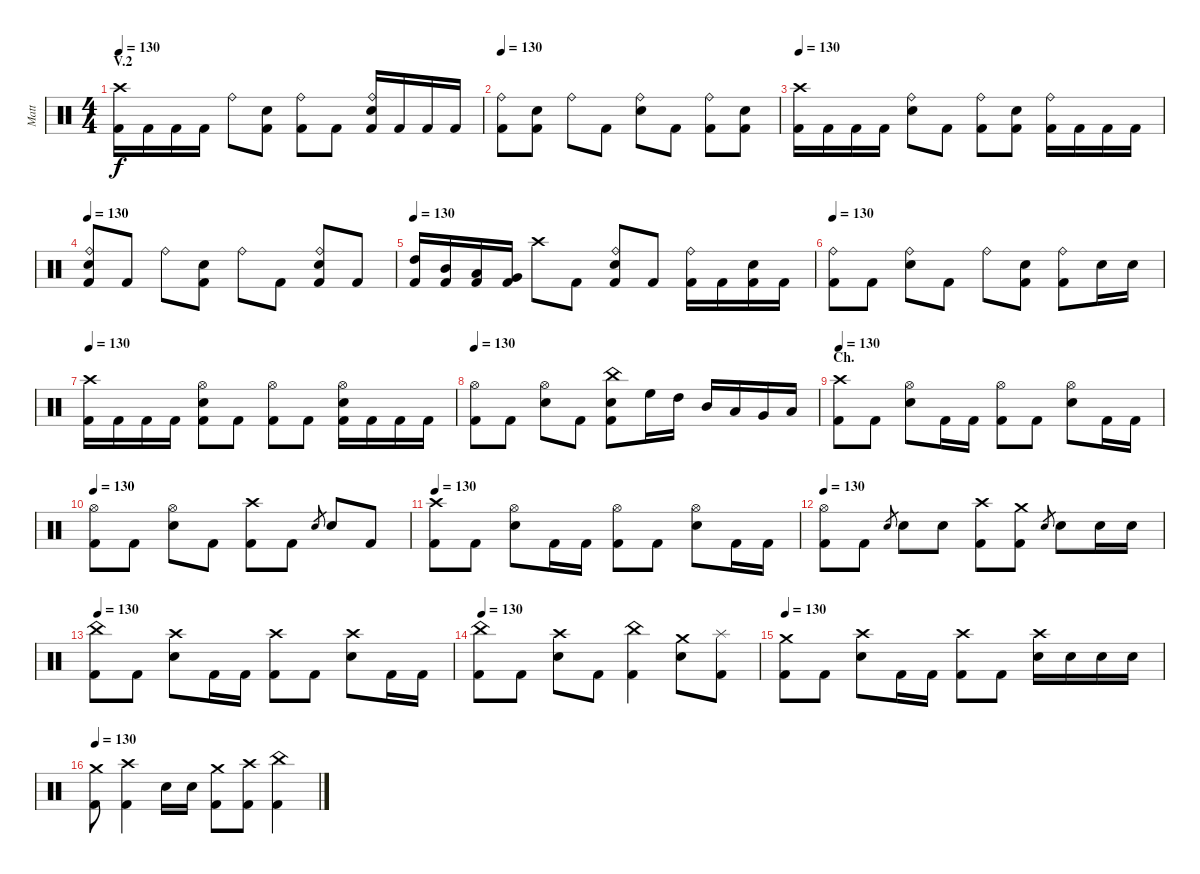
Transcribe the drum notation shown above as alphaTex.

\track ("Matt" "Matt") {instrument percussion}
\staff {score}
\articulation defaults
\ts (4 4)
\section ("" "V.2")
\tempo 130
\clef neutral
\ks c
("Crash high (hit)" "Kick (hit) 2").16{dy f} "Kick (hit) 2".16 "Kick (hit) 2".16 "Kick (hit) 2".16 "Ride (bell)".8 ("Electric Snare (hit)" "Kick (hit) 2").8 ("Ride (bell)" "Kick (hit) 2").8 "Kick (hit) 2".8 ("Ride (bell)" "Electric Snare (hit)" "Kick (hit) 2").16 "Kick (hit) 2".16 "Kick (hit) 2".16 "Kick (hit) 2".16 |
\tempo 130
("Ride (bell)" "Kick (hit) 2").8 ("Electric Snare (hit)" "Kick (hit) 2").8 "Ride (bell)".8 "Kick (hit) 2".8 ("Ride (bell)" "Electric Snare (hit)").8 "Kick (hit) 2".8 ("Ride (bell)" "Kick (hit) 2").8 ("Electric Snare (hit)" "Kick (hit) 2").8 |
\tempo 130
("Crash high (hit)" "Kick (hit) 2").16 "Kick (hit) 2".16 "Kick (hit) 2".16 "Kick (hit) 2".16 ("Ride (bell)" "Electric Snare (hit)").8 "Kick (hit) 2".8 ("Ride (bell)" "Kick (hit) 2").8 ("Electric Snare (hit)" "Kick (hit) 2").8 ("Ride (bell)" "Kick (hit) 2").16 "Kick (hit) 2".16 "Kick (hit) 2".16 "Kick (hit) 2".16 |
\tempo 130
("Ride (bell)" "Electric Snare (hit)" "Kick (hit) 2").8 "Kick (hit) 2".8 "Ride (bell)".8 ("Electric Snare (hit)" "Kick (hit) 2").8 "Ride (bell)".8 "Kick (hit) 2".8 ("Ride (bell)" "Electric Snare (hit)" "Kick (hit) 2").8 "Kick (hit) 2".8 |
\tempo 130
("High Tom (hit)" "Kick (hit) 2").16 ("Mid Tom (hit)" "Kick (hit) 2").16 ("Low Tom (hit)" "Kick (hit) 2").16 ("Very Low Tom (hit)" "Kick (hit) 2").16 "Crash high (hit)".8 "Kick (hit) 2".8 ("Ride (bell)" "Electric Snare (hit)" "Kick (hit) 2").8 "Kick (hit) 2".8 ("Ride (bell)" "Kick (hit) 2").16 "Kick (hit) 2".16 ("Electric Snare (hit)" "Kick (hit) 2").16 "Kick (hit) 2".16 |
\tempo 130
("Ride (bell)" "Kick (hit) 2").8 "Kick (hit) 2".8 ("Ride (bell)" "Electric Snare (hit)").8 "Kick (hit) 2".8 "Ride (bell)".8 ("Electric Snare (hit)" "Kick (hit) 2").8 ("Ride (bell)" "Kick (hit) 2").8 "Electric Snare (hit)".16 "Electric Snare (hit)".16 |
\tempo 130
("Crash high (hit)" "Kick (hit) 2").16 "Kick (hit) 2".16 "Kick (hit) 2".16 "Kick (hit) 2".16 ("Hi-Hat (open)" "Electric Snare (hit)" "Kick (hit) 2").8 "Kick (hit) 2".8 ("Hi-Hat (open)" "Kick (hit) 2").8 "Kick (hit) 2".8 ("Hi-Hat (open)" "Electric Snare (hit)" "Kick (hit) 2").16 "Kick (hit) 2".16 "Kick (hit) 2".16 "Kick (hit) 2".16 |
\tempo 130
("Hi-Hat (open)" "Kick (hit) 2").8 "Kick (hit) 2".8 ("Hi-Hat (open)" "Electric Snare (hit)").8 "Kick (hit) 2".8 ("China (hit)" "Electric Snare (hit)" "Kick (hit) 2").8 "High Floor Tom (hit)".16 "High Tom (hit)".16 "Mid Tom (hit)".16 "Low Tom (hit)".16 "Very Low Tom (hit)".16 "Low Floor Tom (hit)".16 |
\section ("" "Ch.")
\tempo 130
("Crash high (hit)" "Kick (hit) 2").8 "Kick (hit) 2".8 ("Hi-Hat (open)" "Electric Snare (hit)").8 "Kick (hit) 2".16 "Kick (hit) 2".16 ("Hi-Hat (open)" "Kick (hit) 2").8 "Kick (hit) 2".8 ("Hi-Hat (open)" "Electric Snare (hit)").8 "Kick (hit) 2".16 "Kick (hit) 2".16 |
\tempo 130
("Hi-Hat (open)" "Kick (hit) 2").8 "Kick (hit) 2".8 ("Hi-Hat (open)" "Electric Snare (hit)").8 "Kick (hit) 2".8 ("Crash high (hit)" "Kick (hit) 2").8 "Kick (hit) 2".8 "Electric Snare (hit)".8{gr} "Electric Snare (hit)".8 "Kick (hit) 2".8 |
\tempo 130
("Crash high (hit)" "Kick (hit) 2").8 "Kick (hit) 2".8 ("Hi-Hat (open)" "Electric Snare (hit)").8 "Kick (hit) 2".16 "Kick (hit) 2".16 ("Hi-Hat (open)" "Kick (hit) 2").8 "Kick (hit) 2".8 ("Hi-Hat (open)" "Electric Snare (hit)").8 "Kick (hit) 2".16 "Kick (hit) 2".16 |
\tempo 130
("Hi-Hat (open)" "Kick (hit) 2").8 "Kick (hit) 2".8 "Electric Snare (hit)".8{gr} "Electric Snare (hit)".8 "Electric Snare (hit)".8 ("Crash high (hit)" "Kick (hit) 2").8 ("Crash medium (hit)" "Kick (hit) 2").8 "Electric Snare (hit)".8{gr} "Electric Snare (hit)".8 "Electric Snare (hit)".16 "Electric Snare (hit)".16 |
\tempo 130
("China (hit)" "Kick (hit) 2").8 "Kick (hit) 2".8 ("Crash high (hit)" "Electric Snare (hit)").8 "Kick (hit) 2".16 "Kick (hit) 2".16 ("Crash high (hit)" "Kick (hit) 2").8 "Kick (hit) 2".8 ("Crash high (hit)" "Electric Snare (hit)").8 "Kick (hit) 2".16 "Kick (hit) 2".16 |
\tempo 130
("China (hit)" "Kick (hit) 2").8 "Kick (hit) 2".8 ("Crash high (hit)" "Electric Snare (hit)").8 "Kick (hit) 2".8 ("China (hit)" "Kick (hit) 2").4 ("Crash medium (hit)" "Electric Snare (hit)").8 ("Splash (hit)" "Kick (hit) 2").8 |
\tempo 130
("Crash medium (hit)" "Kick (hit) 2").8 "Kick (hit) 2".8 ("Crash high (hit)" "Electric Snare (hit)").8 "Kick (hit) 2".16 "Kick (hit) 2".16 ("Crash high (hit)" "Kick (hit) 2").8 "Kick (hit) 2".8 ("Crash high (hit)" "Electric Snare (hit)").16 "Electric Snare (hit)".16 "Electric Snare (hit)".16 "Electric Snare (hit)".16 |
\tempo 130
("Crash medium (hit)" "Kick (hit) 2").8 ("Crash high (hit)" "Kick (hit) 2").4 "Electric Snare (hit)".16 "Electric Snare (hit)".16 ("Crash medium (hit)" "Kick (hit) 2").8 ("Crash high (hit)" "Kick (hit) 2").8 ("China (hit)" "Kick (hit) 2").4
